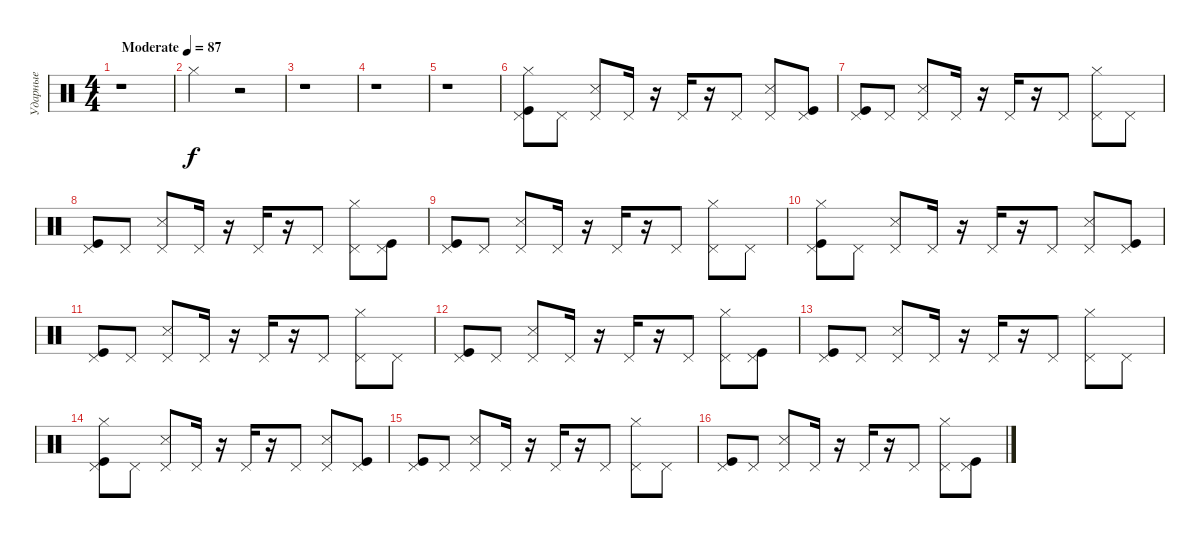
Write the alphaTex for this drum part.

\track ("Ударные" "Ударные") {instrument percussion}
\staff {score}
\articulation defaults
\ts (4 4)
\tempo (87 "Moderate")
\clef neutral
\ks c
r.1{dy f} |
"Hi-Hat (closed)".2 r.2 |
r.1 |
r.1 |
r.1 |
("Hi-Hat (closed)" "Kick (hit)" "Pedal Hi-Hat (hit)").8 "Pedal Hi-Hat (hit)".8 ("Snare (side stick) 3" "Pedal Hi-Hat (hit)").8 "Pedal Hi-Hat (hit)".16 r.16 "Pedal Hi-Hat (hit)".16 r.16 "Pedal Hi-Hat (hit)".8 ("Snare (side stick) 3" "Pedal Hi-Hat (hit)").8 ("Kick (hit)" "Pedal Hi-Hat (hit)").8 |
("Kick (hit)" "Pedal Hi-Hat (hit)").8 "Pedal Hi-Hat (hit)".8 ("Snare (side stick) 3" "Pedal Hi-Hat (hit)").8 "Pedal Hi-Hat (hit)".16 r.16 "Pedal Hi-Hat (hit)".16 r.16 "Pedal Hi-Hat (hit)".8 ("Pedal Hi-Hat (hit)" "Hi-Hat (closed)").8 "Pedal Hi-Hat (hit)".8 |
("Kick (hit)" "Pedal Hi-Hat (hit)").8 "Pedal Hi-Hat (hit)".8 ("Snare (side stick) 3" "Pedal Hi-Hat (hit)").8 "Pedal Hi-Hat (hit)".16 r.16 "Pedal Hi-Hat (hit)".16 r.16 "Pedal Hi-Hat (hit)".8 ("Pedal Hi-Hat (hit)" "Hi-Hat (closed)").8 ("Pedal Hi-Hat (hit)" "Kick (hit)").8 |
("Kick (hit)" "Pedal Hi-Hat (hit)").8 "Pedal Hi-Hat (hit)".8 ("Snare (side stick) 3" "Pedal Hi-Hat (hit)").8 "Pedal Hi-Hat (hit)".16 r.16 "Pedal Hi-Hat (hit)".16 r.16 "Pedal Hi-Hat (hit)".8 ("Pedal Hi-Hat (hit)" "Hi-Hat (closed)").8 "Pedal Hi-Hat (hit)".8 |
("Hi-Hat (closed)" "Kick (hit)" "Pedal Hi-Hat (hit)").8 "Pedal Hi-Hat (hit)".8 ("Snare (side stick) 3" "Pedal Hi-Hat (hit)").8 "Pedal Hi-Hat (hit)".16 r.16 "Pedal Hi-Hat (hit)".16 r.16 "Pedal Hi-Hat (hit)".8 ("Snare (side stick) 3" "Pedal Hi-Hat (hit)").8 ("Kick (hit)" "Pedal Hi-Hat (hit)").8 |
("Kick (hit)" "Pedal Hi-Hat (hit)").8 "Pedal Hi-Hat (hit)".8 ("Snare (side stick) 3" "Pedal Hi-Hat (hit)").8 "Pedal Hi-Hat (hit)".16 r.16 "Pedal Hi-Hat (hit)".16 r.16 "Pedal Hi-Hat (hit)".8 ("Pedal Hi-Hat (hit)" "Hi-Hat (closed)").8 "Pedal Hi-Hat (hit)".8 |
("Kick (hit)" "Pedal Hi-Hat (hit)").8 "Pedal Hi-Hat (hit)".8 ("Snare (side stick) 3" "Pedal Hi-Hat (hit)").8 "Pedal Hi-Hat (hit)".16 r.16 "Pedal Hi-Hat (hit)".16 r.16 "Pedal Hi-Hat (hit)".8 ("Pedal Hi-Hat (hit)" "Hi-Hat (closed)").8 ("Pedal Hi-Hat (hit)" "Kick (hit)").8 |
("Kick (hit)" "Pedal Hi-Hat (hit)").8 "Pedal Hi-Hat (hit)".8 ("Snare (side stick) 3" "Pedal Hi-Hat (hit)").8 "Pedal Hi-Hat (hit)".16 r.16 "Pedal Hi-Hat (hit)".16 r.16 "Pedal Hi-Hat (hit)".8 ("Pedal Hi-Hat (hit)" "Hi-Hat (closed)").8 "Pedal Hi-Hat (hit)".8 |
("Hi-Hat (closed)" "Kick (hit)" "Pedal Hi-Hat (hit)").8 "Pedal Hi-Hat (hit)".8 ("Snare (side stick) 3" "Pedal Hi-Hat (hit)").8 "Pedal Hi-Hat (hit)".16 r.16 "Pedal Hi-Hat (hit)".16 r.16 "Pedal Hi-Hat (hit)".8 ("Snare (side stick) 3" "Pedal Hi-Hat (hit)").8 ("Kick (hit)" "Pedal Hi-Hat (hit)").8 |
("Kick (hit)" "Pedal Hi-Hat (hit)").8 "Pedal Hi-Hat (hit)".8 ("Snare (side stick) 3" "Pedal Hi-Hat (hit)").8 "Pedal Hi-Hat (hit)".16 r.16 "Pedal Hi-Hat (hit)".16 r.16 "Pedal Hi-Hat (hit)".8 ("Pedal Hi-Hat (hit)" "Hi-Hat (closed)").8 "Pedal Hi-Hat (hit)".8 |
("Kick (hit)" "Pedal Hi-Hat (hit)").8 "Pedal Hi-Hat (hit)".8 ("Snare (side stick) 3" "Pedal Hi-Hat (hit)").8 "Pedal Hi-Hat (hit)".16 r.16 "Pedal Hi-Hat (hit)".16 r.16 "Pedal Hi-Hat (hit)".8 ("Pedal Hi-Hat (hit)" "Hi-Hat (closed)").8 ("Pedal Hi-Hat (hit)" "Kick (hit)").8
